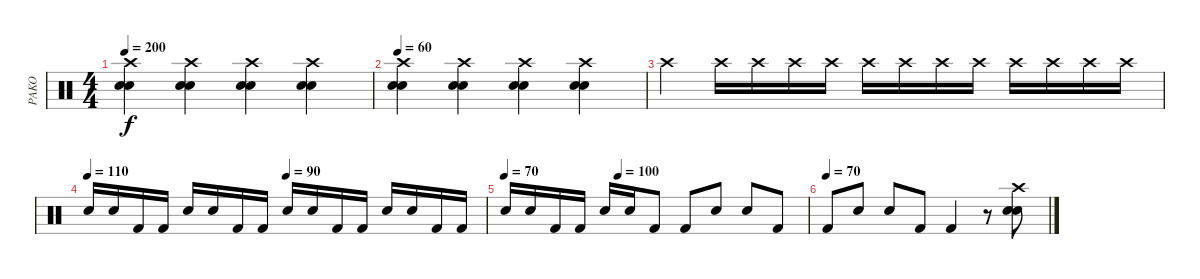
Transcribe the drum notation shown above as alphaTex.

\track ("PAKO" "PAKO") {instrument percussion}
\staff {score}
\articulation defaults
\ts (4 4)
\tempo 200
\clef neutral
\ks c
("Crash high (hit)" "Electric Snare (hit)" "Snare (hit) 2").4{dy f} ("Crash high (hit)" "Electric Snare (hit)" "Snare (hit) 2").4 ("Crash high (hit)" "Electric Snare (hit)" "Snare (hit) 2").4 ("Crash high (hit)" "Electric Snare (hit)" "Snare (hit) 2").4 |
\tempo 60
("Crash high (hit)" "Electric Snare (hit)" "Snare (hit) 2").4 ("Crash high (hit)" "Electric Snare (hit)" "Snare (hit) 2").4 ("Crash high (hit)" "Electric Snare (hit)" "Snare (hit) 2").4 ("Crash high (hit)" "Electric Snare (hit)" "Snare (hit) 2").4 |
"Crash high (hit)".4 "Crash high (hit)".16 "Crash high (hit)".16 "Crash high (hit)".16 "Crash high (hit)".16 "Crash high (hit)".16 "Crash high (hit)".16 "Crash high (hit)".16 "Crash high (hit)".16 "Crash high (hit)".16 "Crash high (hit)".16 "Crash high (hit)".16 "Crash high (hit)".16 |
\tempo 110
\tempo (90 0.5)
"Electric Snare (hit)".16 "Snare (hit) 2".16 "Kick (hit) 2".16 "Kick (hit) 2".16 "Electric Snare (hit)".16 "Snare (hit) 2".16 "Kick (hit) 2".16 "Kick (hit) 2".16 "Electric Snare (hit)".16 "Snare (hit) 2".16 "Kick (hit) 2".16 "Kick (hit) 2".16 "Electric Snare (hit)".16 "Snare (hit) 2".16 "Kick (hit) 2".16 "Kick (hit) 2".16 |
\tempo 70
\tempo (100 0.375)
"Electric Snare (hit)".16 "Snare (hit) 2".16 "Kick (hit) 2".16 "Kick (hit) 2".16 "Electric Snare (hit)".16 "Snare (hit) 2".16 "Kick (hit) 2".8 "Kick (hit) 2".8 "Electric Snare (hit)".8 "Snare (hit) 2".8 "Kick (hit) 2".8 |
\tempo (70)
"Kick (hit) 2".8 "Electric Snare (hit)".8 "Snare (hit) 2".8 "Kick (hit) 2".8 "Kick (hit) 2".4 r.8 ("Crash high (hit)" "Electric Snare (hit)" "Snare (hit) 2").8
